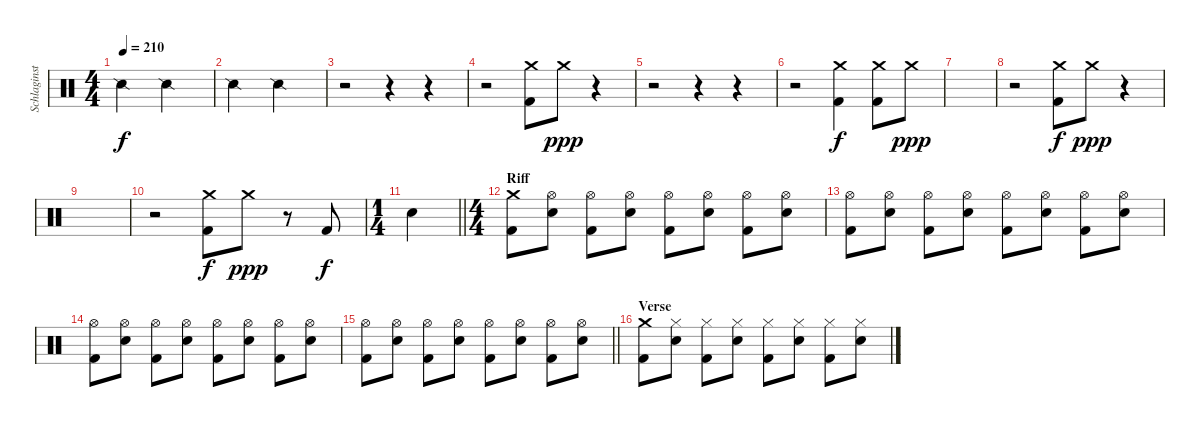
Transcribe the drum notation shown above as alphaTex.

\track ("Schlaginstrumente - Auswahl" "Schlaginst") {instrument percussion}
\staff {score}
\articulation defaults
\ts (4 4)
\tempo 210
\clef neutral
\ks c "Snare (side stick) 2".2{dy f} "Snare (side stick) 2".2
|
"Snare (side stick) 2".2 "Snare (side stick) 2".2 |
r.2 r.4 r.4 |
r.2 ("Crash medium (hit)" "Kick (hit) 2").8 "Crash medium (hit)".8{dy ppp} r.4 |
r.2 r.4 r.4 |
r.2 ("Crash medium (hit)" "Kick (hit) 2").4{dy f} ("Crash medium (hit)" "Kick (hit) 2").8 "Crash medium (hit)".8{dy ppp} |
|
r.2 ("Crash medium (hit)" "Kick (hit) 2").8{dy f} "Crash medium (hit)".8{dy ppp} r.4 |
|
r.2 ("Crash medium (hit)" "Kick (hit) 2").8{dy f} "Crash medium (hit)".8{dy ppp} r.8 "Kick (hit) 2".8{dy f} |
\ts (1 4)
\barLineRight lightlight "Electric Snare (hit)".4
|
\ts (4 4)
\section ("" "Riff ")
("Crash medium (hit)" "Kick (hit) 2").8 ("Hi-Hat (open)" "Electric Snare (hit)").8 ("Hi-Hat (open)" "Kick (hit) 2").8 ("Hi-Hat (open)" "Electric Snare (hit)").8 ("Hi-Hat (open)" "Kick (hit) 2").8 ("Hi-Hat (open)" "Electric Snare (hit)").8 ("Hi-Hat (open)" "Kick (hit) 2").8 ("Hi-Hat (open)" "Electric Snare (hit)").8 |
("Hi-Hat (open)" "Kick (hit) 2").8 ("Hi-Hat (open)" "Electric Snare (hit)").8 ("Hi-Hat (open)" "Kick (hit) 2").8 ("Hi-Hat (open)" "Electric Snare (hit)").8 ("Hi-Hat (open)" "Kick (hit) 2").8 ("Hi-Hat (open)" "Electric Snare (hit)").8 ("Hi-Hat (open)" "Kick (hit) 2").8 ("Hi-Hat (open)" "Electric Snare (hit)").8 |
("Hi-Hat (open)" "Kick (hit) 2").8 ("Hi-Hat (open)" "Electric Snare (hit)").8 ("Hi-Hat (open)" "Kick (hit) 2").8 ("Hi-Hat (open)" "Electric Snare (hit)").8 ("Hi-Hat (open)" "Kick (hit) 2").8 ("Hi-Hat (open)" "Electric Snare (hit)").8 ("Hi-Hat (open)" "Kick (hit) 2").8 ("Hi-Hat (open)" "Electric Snare (hit)").8 |
\barLineRight lightlight
("Hi-Hat (open)" "Kick (hit) 2").8 ("Hi-Hat (open)" "Electric Snare (hit)").8 ("Hi-Hat (open)" "Kick (hit) 2").8 ("Hi-Hat (open)" "Electric Snare (hit)").8 ("Hi-Hat (open)" "Kick (hit) 2").8 ("Hi-Hat (open)" "Electric Snare (hit)").8 ("Hi-Hat (open)" "Kick (hit) 2").8 ("Hi-Hat (open)" "Electric Snare (hit)").8 |
\section ("" "Verse")
("Crash medium (hit)" "Kick (hit) 2").8 ("Hi-Hat (closed)" "Electric Snare (hit)").8 ("Hi-Hat (closed)" "Kick (hit) 2").8 ("Hi-Hat (closed)" "Electric Snare (hit)").8 ("Hi-Hat (closed)" "Kick (hit) 2").8 ("Hi-Hat (closed)" "Electric Snare (hit)").8 ("Hi-Hat (closed)" "Kick (hit) 2").8 ("Hi-Hat (closed)" "Electric Snare (hit)").8
